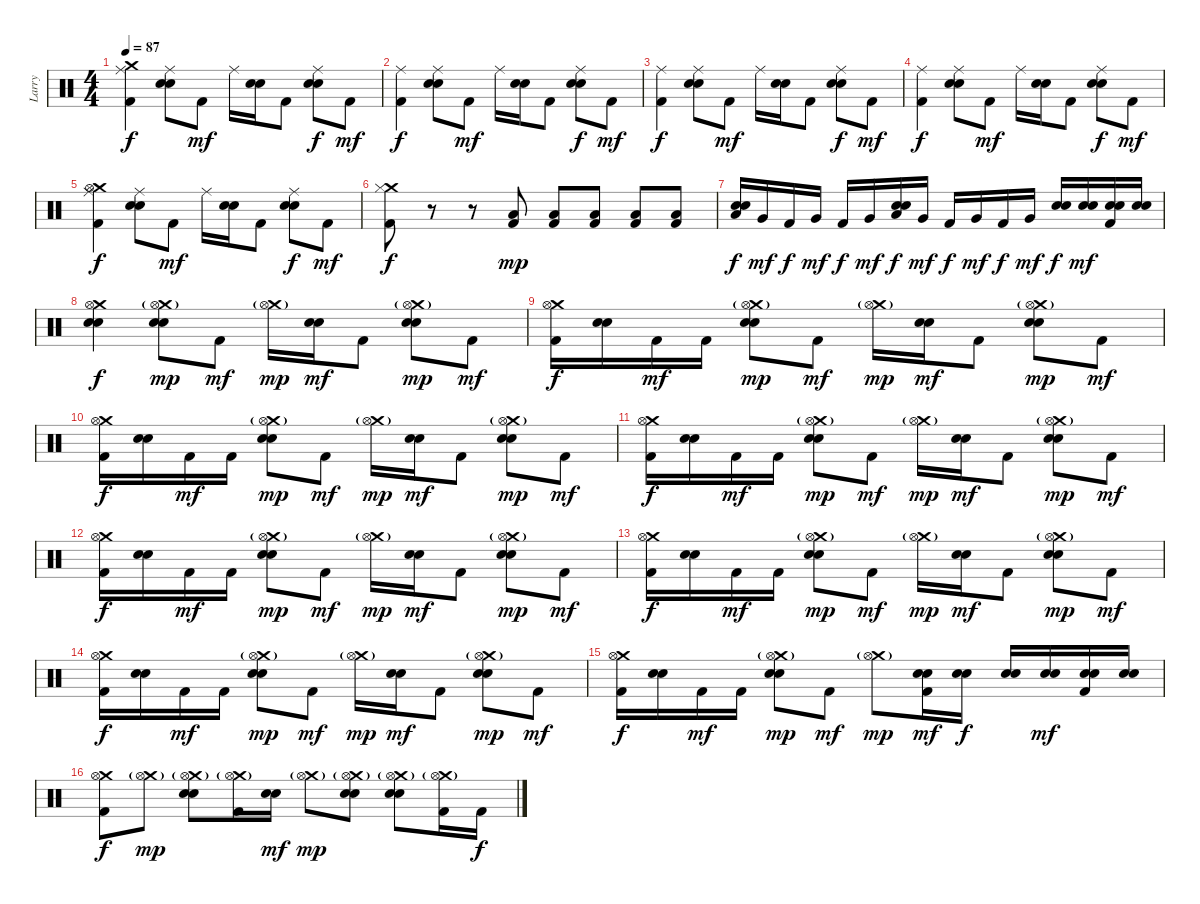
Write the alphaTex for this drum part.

\track ("Larry" "Larry") {instrument percussion}
\staff {score}
\articulation defaults
\ts (4 4)
\tempo 87
\clef neutral
\ks c
("Crash medium (hit)" "Kick (hit) 2" "Ride (middle)").4{dy f} ("Snare (hit) 2" "Electric Snare (hit)" "Ride (middle)").8 "Kick (hit) 2".8{dy mf} "Ride (middle)".16 ("Snare (hit) 2" "Electric Snare (hit)").16 "Kick (hit) 2".8 ("Snare (hit) 2" "Electric Snare (hit)" "Ride (middle)").8{dy f} "Kick (hit) 2".8{dy mf} |
("Kick (hit) 2" "Ride (middle)").4{dy f} ("Snare (hit) 2" "Electric Snare (hit)" "Ride (middle)").8 "Kick (hit) 2".8{dy mf} "Ride (middle)".16 ("Snare (hit) 2" "Electric Snare (hit)").16 "Kick (hit) 2".8 ("Snare (hit) 2" "Electric Snare (hit)" "Ride (middle)").8{dy f} "Kick (hit) 2".8{dy mf} |
("Kick (hit) 2" "Ride (middle)").4{dy f} ("Snare (hit) 2" "Electric Snare (hit)" "Ride (middle)").8 "Kick (hit) 2".8{dy mf} "Ride (middle)".16 ("Snare (hit) 2" "Electric Snare (hit)").16 "Kick (hit) 2".8 ("Snare (hit) 2" "Electric Snare (hit)" "Ride (middle)").8{dy f} "Kick (hit) 2".8{dy mf} |
("Kick (hit) 2" "Ride (middle)").4{dy f} ("Snare (hit) 2" "Electric Snare (hit)" "Ride (middle)").8 "Kick (hit) 2".8{dy mf} "Ride (middle)".16 ("Snare (hit) 2" "Electric Snare (hit)").16 "Kick (hit) 2".8 ("Snare (hit) 2" "Electric Snare (hit)" "Ride (middle)").8{dy f} "Kick (hit) 2".8{dy mf} |
("Crash medium (hit)" "Hi-Hat (open)" "Kick (hit) 2" "Ride (middle)").4{dy f} ("Snare (hit) 2" "Electric Snare (hit)" "Ride (middle)").8 "Kick (hit) 2".8{dy mf} "Ride (middle)".16 ("Snare (hit) 2" "Electric Snare (hit)").16 "Kick (hit) 2".8 ("Snare (hit) 2" "Electric Snare (hit)" "Ride (middle)").8{dy f} "Kick (hit) 2".8{dy mf} |
("Crash medium (hit)" "Kick (hit) 2" "Hi-Hat (closed)").8{dy f} r.8 r.8 ("Low Floor Tom (hit)" "Kick (hit) 2").8{dy mp} ("Low Floor Tom (hit)" "Kick (hit) 2").8 ("Low Floor Tom (hit)" "Kick (hit) 2").8 ("Low Floor Tom (hit)" "Kick (hit) 2").8 ("Low Floor Tom (hit)" "Kick (hit) 2").8 |
("Snare (hit) 2" "Electric Snare (hit)" "Low Tom (hit)").16{dy f} "Very Low Tom (hit)".16{dy mf} "Kick (hit) 2".16{dy f} "Very Low Tom (hit)".16{dy mf} "Kick (hit) 2".16{dy f} "Very Low Tom (hit)".16{dy mf} ("Snare (hit) 2" "Electric Snare (hit)" "Low Tom (hit)").16{dy f} "Very Low Tom (hit)".16{dy mf} "Kick (hit) 2".16{dy f} "Very Low Tom (hit)".16{dy mf} "Kick (hit) 2".16{dy f} "Very Low Tom (hit)".16{dy mf} ("Snare (hit) 2" "Electric Snare (hit)").16{dy f} ("Snare (hit) 2" "Electric Snare (hit)").16{dy mf} ("Snare (hit) 2" "Electric Snare (hit)" "Kick (hit) 2").16 ("Snare (hit) 2" "Electric Snare (hit)").16 |
("Crash medium (hit)" "Snare (hit) 2" "Electric Snare (hit)" "Hi-Hat (open)").4{dy f} ("Crash medium (hit)"{g} "Snare (hit) 2" "Electric Snare (hit)" "Hi-Hat (open)"{g}).8{dy mp} "Kick (hit) 2".8{dy mf} ("Crash medium (hit)"{g} "Hi-Hat (open)"{g}).16{dy mp} ("Snare (hit) 2" "Electric Snare (hit)").16{dy mf} "Kick (hit) 2".8 ("Crash medium (hit)"{g} "Snare (hit) 2" "Electric Snare (hit)" "Hi-Hat (open)"{g}).8{dy mp} "Kick (hit) 2".8{dy mf} |
("Crash medium (hit)" "Kick (hit) 2" "Hi-Hat (open)").16{dy f} ("Snare (hit) 2" "Electric Snare (hit)").16 "Kick (hit) 2".16{dy mf} "Kick (hit) 2".16 ("Crash medium (hit)"{g} "Snare (hit) 2" "Electric Snare (hit)" "Hi-Hat (open)"{g}).8{dy mp} "Kick (hit) 2".8{dy mf} ("Crash medium (hit)"{g} "Hi-Hat (open)"{g}).16{dy mp} ("Snare (hit) 2" "Electric Snare (hit)").16{dy mf} "Kick (hit) 2".8 ("Crash medium (hit)"{g} "Snare (hit) 2" "Electric Snare (hit)" "Hi-Hat (open)"{g}).8{dy mp} "Kick (hit) 2".8{dy mf} |
("Crash medium (hit)" "Kick (hit) 2" "Hi-Hat (open)").16{dy f} ("Snare (hit) 2" "Electric Snare (hit)").16 "Kick (hit) 2".16{dy mf} "Kick (hit) 2".16 ("Crash medium (hit)"{g} "Snare (hit) 2" "Electric Snare (hit)" "Hi-Hat (open)"{g}).8{dy mp} "Kick (hit) 2".8{dy mf} ("Crash medium (hit)"{g} "Hi-Hat (open)"{g}).16{dy mp} ("Snare (hit) 2" "Electric Snare (hit)").16{dy mf} "Kick (hit) 2".8 ("Crash medium (hit)"{g} "Snare (hit) 2" "Electric Snare (hit)" "Hi-Hat (open)"{g}).8{dy mp} "Kick (hit) 2".8{dy mf} |
("Crash medium (hit)" "Kick (hit) 2" "Hi-Hat (open)").16{dy f} ("Snare (hit) 2" "Electric Snare (hit)").16 "Kick (hit) 2".16{dy mf} "Kick (hit) 2".16 ("Crash medium (hit)"{g} "Snare (hit) 2" "Electric Snare (hit)" "Hi-Hat (open)"{g}).8{dy mp} "Kick (hit) 2".8{dy mf} ("Crash medium (hit)"{g} "Hi-Hat (open)"{g}).16{dy mp} ("Snare (hit) 2" "Electric Snare (hit)").16{dy mf} "Kick (hit) 2".8 ("Crash medium (hit)"{g} "Snare (hit) 2" "Electric Snare (hit)" "Hi-Hat (open)"{g}).8{dy mp} "Kick (hit) 2".8{dy mf} |
("Crash medium (hit)" "Kick (hit) 2" "Hi-Hat (open)").16{dy f} ("Snare (hit) 2" "Electric Snare (hit)").16 "Kick (hit) 2".16{dy mf} "Kick (hit) 2".16 ("Crash medium (hit)"{g} "Snare (hit) 2" "Electric Snare (hit)" "Hi-Hat (open)"{g}).8{dy mp} "Kick (hit) 2".8{dy mf} ("Crash medium (hit)"{g} "Hi-Hat (open)"{g}).16{dy mp} ("Snare (hit) 2" "Electric Snare (hit)").16{dy mf} "Kick (hit) 2".8 ("Crash medium (hit)"{g} "Snare (hit) 2" "Electric Snare (hit)" "Hi-Hat (open)"{g}).8{dy mp} "Kick (hit) 2".8{dy mf} |
("Crash medium (hit)" "Kick (hit) 2" "Hi-Hat (open)").16{dy f} ("Snare (hit) 2" "Electric Snare (hit)").16 "Kick (hit) 2".16{dy mf} "Kick (hit) 2".16 ("Crash medium (hit)"{g} "Snare (hit) 2" "Electric Snare (hit)" "Hi-Hat (open)"{g}).8{dy mp} "Kick (hit) 2".8{dy mf} ("Crash medium (hit)"{g} "Hi-Hat (open)"{g}).16{dy mp} ("Snare (hit) 2" "Electric Snare (hit)").16{dy mf} "Kick (hit) 2".8 ("Crash medium (hit)"{g} "Snare (hit) 2" "Electric Snare (hit)" "Hi-Hat (open)"{g}).8{dy mp} "Kick (hit) 2".8{dy mf} |
("Crash medium (hit)" "Kick (hit) 2" "Hi-Hat (open)").16{dy f} ("Snare (hit) 2" "Electric Snare (hit)").16 "Kick (hit) 2".16{dy mf} "Kick (hit) 2".16 ("Crash medium (hit)"{g} "Snare (hit) 2" "Electric Snare (hit)" "Hi-Hat (open)"{g}).8{dy mp} "Kick (hit) 2".8{dy mf} ("Crash medium (hit)"{g} "Hi-Hat (open)"{g}).16{dy mp} ("Snare (hit) 2" "Electric Snare (hit)").16{dy mf} "Kick (hit) 2".8 ("Crash medium (hit)"{g} "Snare (hit) 2" "Electric Snare (hit)" "Hi-Hat (open)"{g}).8{dy mp} "Kick (hit) 2".8{dy mf} |
("Crash medium (hit)" "Kick (hit) 2" "Hi-Hat (open)").16{dy f} ("Snare (hit) 2" "Electric Snare (hit)").16 "Kick (hit) 2".16{dy mf} "Kick (hit) 2".16 ("Crash medium (hit)"{g} "Snare (hit) 2" "Electric Snare (hit)" "Hi-Hat (open)"{g}).8{dy mp} "Kick (hit) 2".8{dy mf} ("Crash medium (hit)"{g} "Hi-Hat (open)"{g}).8{dy mp} ("Snare (hit) 2" "Electric Snare (hit)" "Kick (hit) 2").16{dy mf} ("Snare (hit) 2" "Electric Snare (hit)").16{dy f} ("Snare (hit) 2" "Electric Snare (hit)").16 ("Snare (hit) 2" "Electric Snare (hit)").16{dy mf} ("Snare (hit) 2" "Electric Snare (hit)" "Kick (hit) 2").16 ("Snare (hit) 2" "Electric Snare (hit)").16 |
("Crash medium (hit)" "Kick (hit) 2" "Hi-Hat (open)").8{dy f} ("Crash medium (hit)"{g} "Hi-Hat (open)"{g}).8{dy mp} ("Crash medium (hit)"{g} "Snare (hit) 2" "Electric Snare (hit)" "Hi-Hat (open)"{g}).8 ("Crash medium (hit)"{g} "Kick (hit) 2" "Hi-Hat (open)"{g}).16 ("Snare (hit) 2" "Electric Snare (hit)").16{dy mf} ("Crash medium (hit)"{g} "Hi-Hat (open)"{g}).8{dy mp} ("Crash medium (hit)"{g} "Snare (hit) 2" "Electric Snare (hit)" "Hi-Hat (open)"{g}).8 ("Crash medium (hit)"{g} "Snare (hit) 2" "Electric Snare (hit)" "Hi-Hat (open)"{g}).8 ("Crash medium (hit)"{g} "Kick (hit) 2" "Hi-Hat (open)"{g}).16 "Kick (hit) 2".16{dy f}
